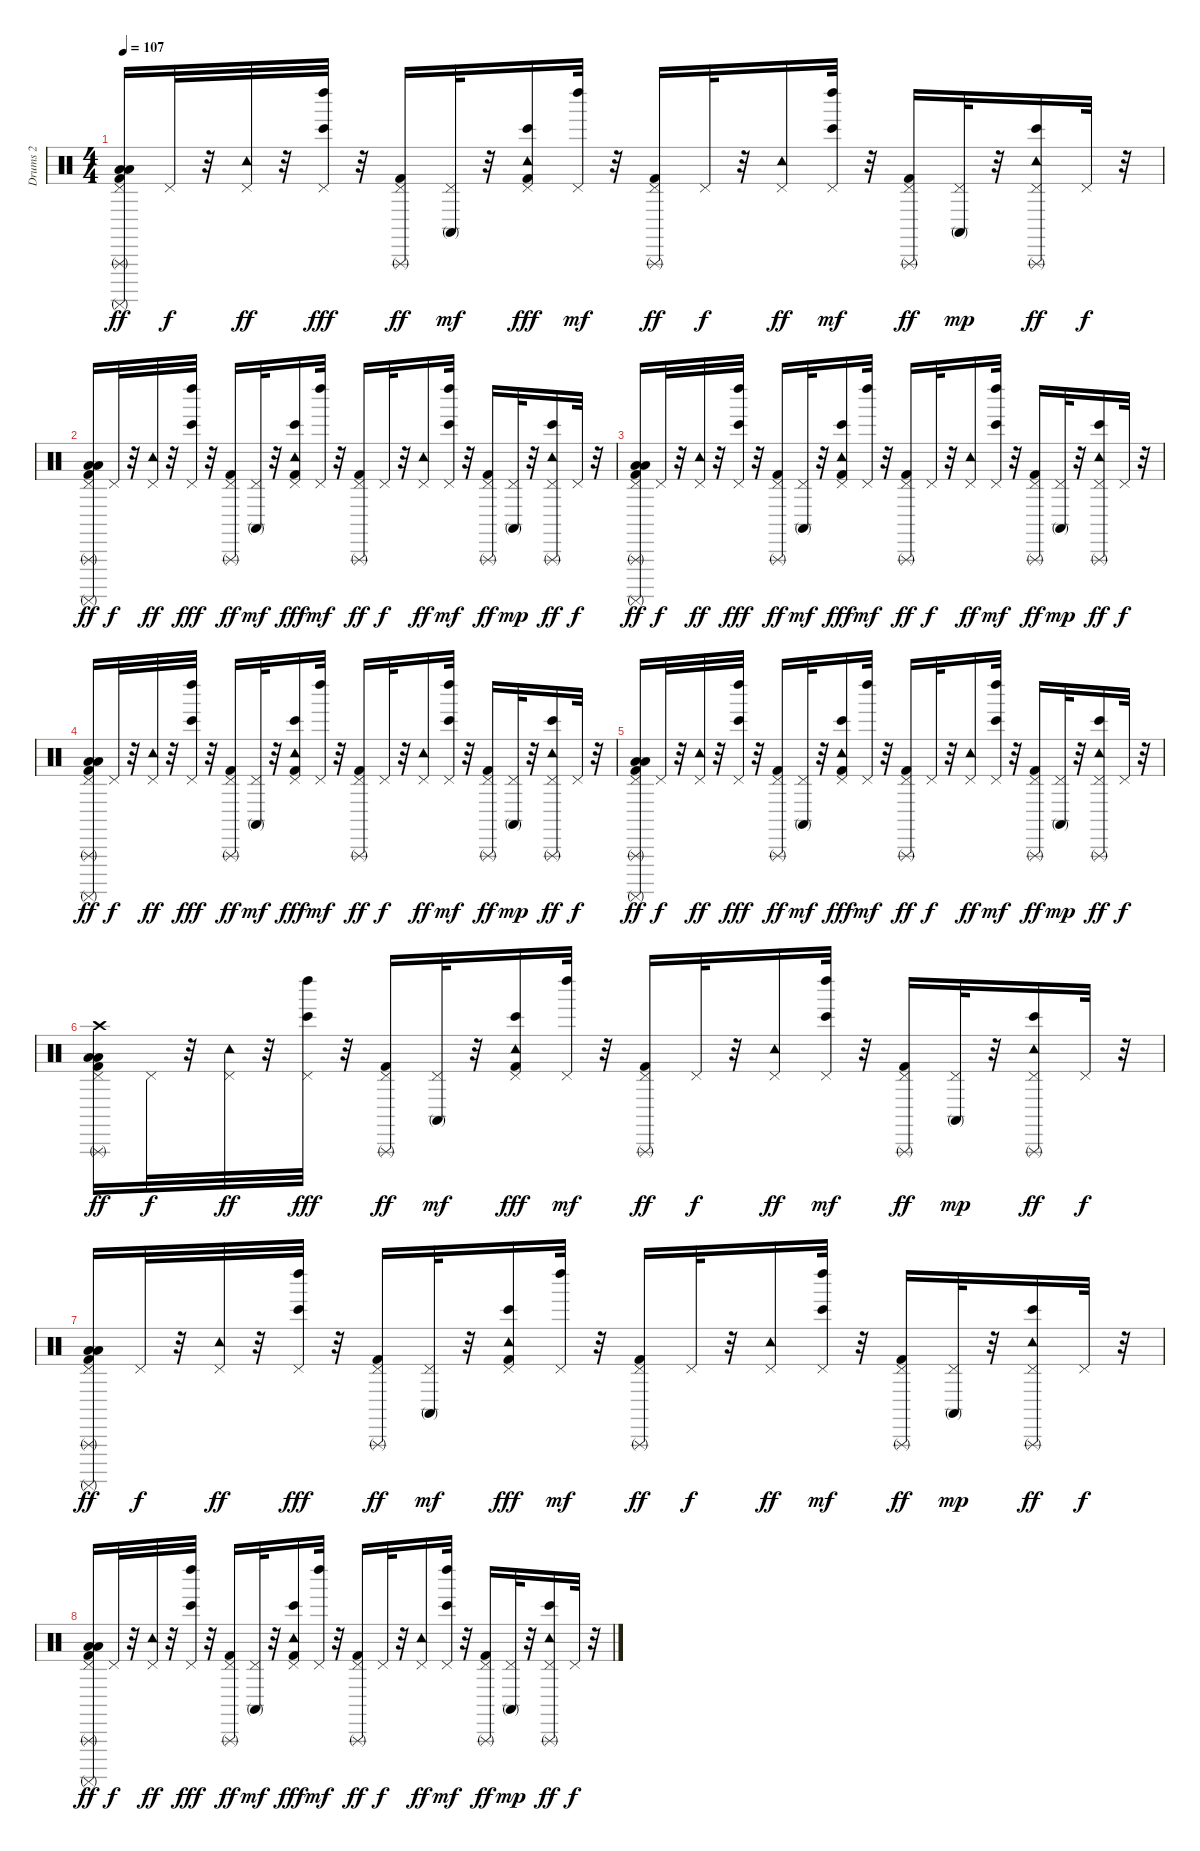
\track ("Drums 2" "Drums 2") {instrument percussion}
\staff {score}
\articulation defaults
\ts (4 4)
\tempo 107
\clef neutral
\ks c
("Kick (hit) 2" "Pedal Hi-Hat (hit)" "Low Tom (hit)" "Low Floor Tom (hit)" "Surdo (mute)" "Triangle (rnute)").16{dy ff} "Pedal Hi-Hat (hit)".32{dy f} r.32 ("Tambourine (hit)" "Pedal Hi-Hat (hit)").32{dy ff} r.32 ("Pedal Hi-Hat (hit)" "Bongo High (hit)" "Left Maraca (hit)").32{dy fff} r.32 ("Kick (hit) 2" "Pedal Hi-Hat (hit)" "Triangle (rnute)").16{dy ff} ("Pedal Hi-Hat (hit)" "Conga high (mute)").32{dy mf} r.32 ("Kick (hit) 2" "Tambourine (hit)" "Pedal Hi-Hat (hit)" "Bongo High (hit)").16{dy fff} ("Pedal Hi-Hat (hit)" "Left Maraca (hit)").32{dy mf} r.32 ("Kick (hit) 2" "Pedal Hi-Hat (hit)" "Triangle (rnute)").16{dy ff} "Pedal Hi-Hat (hit)".32{dy f} r.32 ("Tambourine (hit)" "Pedal Hi-Hat (hit)").16{dy ff} ("Pedal Hi-Hat (hit)" "Bongo High (hit)" "Left Maraca (hit)").32{dy mf} r.32 ("Kick (hit) 2" "Pedal Hi-Hat (hit)" "Triangle (rnute)").16{dy ff} ("Pedal Hi-Hat (hit)" "Conga high (mute)").32{dy mp} r.32 ("Tambourine (hit)" "Pedal Hi-Hat (hit)" "Bongo High (hit)" "Triangle (rnute)").16{dy ff} "Pedal Hi-Hat (hit)".32{dy f} r.32 |
("Kick (hit) 2" "Pedal Hi-Hat (hit)" "Low Tom (hit)" "Low Floor Tom (hit)" "Surdo (mute)" "Triangle (rnute)").16{dy ff} "Pedal Hi-Hat (hit)".32{dy f} r.32 ("Tambourine (hit)" "Pedal Hi-Hat (hit)").32{dy ff} r.32 ("Pedal Hi-Hat (hit)" "Bongo High (hit)" "Left Maraca (hit)").32{dy fff} r.32 ("Kick (hit) 2" "Pedal Hi-Hat (hit)" "Triangle (rnute)").16{dy ff} ("Pedal Hi-Hat (hit)" "Conga high (mute)").32{dy mf} r.32 ("Kick (hit) 2" "Tambourine (hit)" "Pedal Hi-Hat (hit)" "Bongo High (hit)").16{dy fff} ("Pedal Hi-Hat (hit)" "Left Maraca (hit)").32{dy mf} r.32 ("Kick (hit) 2" "Pedal Hi-Hat (hit)" "Triangle (rnute)").16{dy ff} "Pedal Hi-Hat (hit)".32{dy f} r.32 ("Tambourine (hit)" "Pedal Hi-Hat (hit)").16{dy ff} ("Pedal Hi-Hat (hit)" "Bongo High (hit)" "Left Maraca (hit)").32{dy mf} r.32 ("Kick (hit) 2" "Pedal Hi-Hat (hit)" "Triangle (rnute)").16{dy ff} ("Pedal Hi-Hat (hit)" "Conga high (mute)").32{dy mp} r.32 ("Tambourine (hit)" "Pedal Hi-Hat (hit)" "Bongo High (hit)" "Triangle (rnute)").16{dy ff} "Pedal Hi-Hat (hit)".32{dy f} r.32 |
("Kick (hit) 2" "Pedal Hi-Hat (hit)" "Low Tom (hit)" "Low Floor Tom (hit)" "Surdo (mute)" "Triangle (rnute)").16{dy ff} "Pedal Hi-Hat (hit)".32{dy f} r.32 ("Tambourine (hit)" "Pedal Hi-Hat (hit)").32{dy ff} r.32 ("Pedal Hi-Hat (hit)" "Bongo High (hit)" "Left Maraca (hit)").32{dy fff} r.32 ("Kick (hit) 2" "Pedal Hi-Hat (hit)" "Triangle (rnute)").16{dy ff} ("Pedal Hi-Hat (hit)" "Conga high (mute)").32{dy mf} r.32 ("Kick (hit) 2" "Tambourine (hit)" "Pedal Hi-Hat (hit)" "Bongo High (hit)").16{dy fff} ("Pedal Hi-Hat (hit)" "Left Maraca (hit)").32{dy mf} r.32 ("Kick (hit) 2" "Pedal Hi-Hat (hit)" "Triangle (rnute)").16{dy ff} "Pedal Hi-Hat (hit)".32{dy f} r.32 ("Tambourine (hit)" "Pedal Hi-Hat (hit)").16{dy ff} ("Pedal Hi-Hat (hit)" "Bongo High (hit)" "Left Maraca (hit)").32{dy mf} r.32 ("Kick (hit) 2" "Pedal Hi-Hat (hit)" "Triangle (rnute)").16{dy ff} ("Pedal Hi-Hat (hit)" "Conga high (mute)").32{dy mp} r.32 ("Tambourine (hit)" "Pedal Hi-Hat (hit)" "Bongo High (hit)" "Triangle (rnute)").16{dy ff} "Pedal Hi-Hat (hit)".32{dy f} r.32 |
("Kick (hit) 2" "Pedal Hi-Hat (hit)" "Low Tom (hit)" "Low Floor Tom (hit)" "Surdo (mute)" "Triangle (rnute)").16{dy ff} "Pedal Hi-Hat (hit)".32{dy f} r.32 ("Tambourine (hit)" "Pedal Hi-Hat (hit)").32{dy ff} r.32 ("Pedal Hi-Hat (hit)" "Bongo High (hit)" "Left Maraca (hit)").32{dy fff} r.32 ("Kick (hit) 2" "Pedal Hi-Hat (hit)" "Triangle (rnute)").16{dy ff} ("Pedal Hi-Hat (hit)" "Conga high (mute)").32{dy mf} r.32 ("Kick (hit) 2" "Tambourine (hit)" "Pedal Hi-Hat (hit)" "Bongo High (hit)").16{dy fff} ("Pedal Hi-Hat (hit)" "Left Maraca (hit)").32{dy mf} r.32 ("Kick (hit) 2" "Pedal Hi-Hat (hit)" "Triangle (rnute)").16{dy ff} "Pedal Hi-Hat (hit)".32{dy f} r.32 ("Tambourine (hit)" "Pedal Hi-Hat (hit)").16{dy ff} ("Pedal Hi-Hat (hit)" "Bongo High (hit)" "Left Maraca (hit)").32{dy mf} r.32 ("Kick (hit) 2" "Pedal Hi-Hat (hit)" "Triangle (rnute)").16{dy ff} ("Pedal Hi-Hat (hit)" "Conga high (mute)").32{dy mp} r.32 ("Tambourine (hit)" "Pedal Hi-Hat (hit)" "Bongo High (hit)" "Triangle (rnute)").16{dy ff} "Pedal Hi-Hat (hit)".32{dy f} r.32 |
("Kick (hit) 2" "Pedal Hi-Hat (hit)" "Low Tom (hit)" "Low Floor Tom (hit)" "Surdo (mute)" "Triangle (rnute)").16{dy ff} "Pedal Hi-Hat (hit)".32{dy f} r.32 ("Tambourine (hit)" "Pedal Hi-Hat (hit)").32{dy ff} r.32 ("Pedal Hi-Hat (hit)" "Bongo High (hit)" "Left Maraca (hit)").32{dy fff} r.32 ("Kick (hit) 2" "Pedal Hi-Hat (hit)" "Triangle (rnute)").16{dy ff} ("Pedal Hi-Hat (hit)" "Conga high (mute)").32{dy mf} r.32 ("Kick (hit) 2" "Tambourine (hit)" "Pedal Hi-Hat (hit)" "Bongo High (hit)").16{dy fff} ("Pedal Hi-Hat (hit)" "Left Maraca (hit)").32{dy mf} r.32 ("Kick (hit) 2" "Pedal Hi-Hat (hit)" "Triangle (rnute)").16{dy ff} "Pedal Hi-Hat (hit)".32{dy f} r.32 ("Tambourine (hit)" "Pedal Hi-Hat (hit)").16{dy ff} ("Pedal Hi-Hat (hit)" "Bongo High (hit)" "Left Maraca (hit)").32{dy mf} r.32 ("Kick (hit) 2" "Pedal Hi-Hat (hit)" "Triangle (rnute)").16{dy ff} ("Pedal Hi-Hat (hit)" "Conga high (mute)").32{dy mp} r.32 ("Tambourine (hit)" "Pedal Hi-Hat (hit)" "Bongo High (hit)" "Triangle (rnute)").16{dy ff} "Pedal Hi-Hat (hit)".32{dy f} r.32 |
("Kick (hit) 2" "Pedal Hi-Hat (hit)" "Low Tom (hit)" "Low Floor Tom (hit)" "Crash high (hit)" "Triangle (rnute)").16{dy ff} "Pedal Hi-Hat (hit)".32{dy f} r.32 ("Tambourine (hit)" "Pedal Hi-Hat (hit)").32{dy ff} r.32 ("Pedal Hi-Hat (hit)" "Bongo High (hit)" "Left Maraca (hit)").32{dy fff} r.32 ("Kick (hit) 2" "Pedal Hi-Hat (hit)" "Triangle (rnute)").16{dy ff} ("Pedal Hi-Hat (hit)" "Conga high (mute)").32{dy mf} r.32 ("Kick (hit) 2" "Tambourine (hit)" "Pedal Hi-Hat (hit)" "Bongo High (hit)").16{dy fff} ("Pedal Hi-Hat (hit)" "Left Maraca (hit)").32{dy mf} r.32 ("Kick (hit) 2" "Pedal Hi-Hat (hit)" "Triangle (rnute)").16{dy ff} "Pedal Hi-Hat (hit)".32{dy f} r.32 ("Tambourine (hit)" "Pedal Hi-Hat (hit)").16{dy ff} ("Pedal Hi-Hat (hit)" "Bongo High (hit)" "Left Maraca (hit)").32{dy mf} r.32 ("Kick (hit) 2" "Pedal Hi-Hat (hit)" "Triangle (rnute)").16{dy ff} ("Pedal Hi-Hat (hit)" "Conga high (mute)").32{dy mp} r.32 ("Tambourine (hit)" "Pedal Hi-Hat (hit)" "Bongo High (hit)" "Triangle (rnute)").16{dy ff} "Pedal Hi-Hat (hit)".32{dy f} r.32 |
("Kick (hit) 2" "Pedal Hi-Hat (hit)" "Low Tom (hit)" "Low Floor Tom (hit)" "Surdo (mute)" "Triangle (rnute)").16{dy ff} "Pedal Hi-Hat (hit)".32{dy f} r.32 ("Tambourine (hit)" "Pedal Hi-Hat (hit)").32{dy ff} r.32 ("Pedal Hi-Hat (hit)" "Bongo High (hit)" "Left Maraca (hit)").32{dy fff} r.32 ("Kick (hit) 2" "Pedal Hi-Hat (hit)" "Triangle (rnute)").16{dy ff} ("Pedal Hi-Hat (hit)" "Conga high (mute)").32{dy mf} r.32 ("Kick (hit) 2" "Tambourine (hit)" "Pedal Hi-Hat (hit)" "Bongo High (hit)").16{dy fff} ("Pedal Hi-Hat (hit)" "Left Maraca (hit)").32{dy mf} r.32 ("Kick (hit) 2" "Pedal Hi-Hat (hit)" "Triangle (rnute)").16{dy ff} "Pedal Hi-Hat (hit)".32{dy f} r.32 ("Tambourine (hit)" "Pedal Hi-Hat (hit)").16{dy ff} ("Pedal Hi-Hat (hit)" "Bongo High (hit)" "Left Maraca (hit)").32{dy mf} r.32 ("Kick (hit) 2" "Pedal Hi-Hat (hit)" "Triangle (rnute)").16{dy ff} ("Pedal Hi-Hat (hit)" "Conga high (mute)").32{dy mp} r.32 ("Tambourine (hit)" "Pedal Hi-Hat (hit)" "Bongo High (hit)" "Triangle (rnute)").16{dy ff} "Pedal Hi-Hat (hit)".32{dy f} r.32 |
("Kick (hit) 2" "Pedal Hi-Hat (hit)" "Low Tom (hit)" "Low Floor Tom (hit)" "Surdo (mute)" "Triangle (rnute)").16{dy ff} "Pedal Hi-Hat (hit)".32{dy f} r.32 ("Tambourine (hit)" "Pedal Hi-Hat (hit)").32{dy ff} r.32 ("Pedal Hi-Hat (hit)" "Bongo High (hit)" "Left Maraca (hit)").32{dy fff} r.32 ("Kick (hit) 2" "Pedal Hi-Hat (hit)" "Triangle (rnute)").16{dy ff} ("Pedal Hi-Hat (hit)" "Conga high (mute)").32{dy mf} r.32 ("Kick (hit) 2" "Tambourine (hit)" "Pedal Hi-Hat (hit)" "Bongo High (hit)").16{dy fff} ("Pedal Hi-Hat (hit)" "Left Maraca (hit)").32{dy mf} r.32 ("Kick (hit) 2" "Pedal Hi-Hat (hit)" "Triangle (rnute)").16{dy ff} "Pedal Hi-Hat (hit)".32{dy f} r.32 ("Tambourine (hit)" "Pedal Hi-Hat (hit)").16{dy ff} ("Pedal Hi-Hat (hit)" "Bongo High (hit)" "Left Maraca (hit)").32{dy mf} r.32 ("Kick (hit) 2" "Pedal Hi-Hat (hit)" "Triangle (rnute)").16{dy ff} ("Pedal Hi-Hat (hit)" "Conga high (mute)").32{dy mp} r.32 ("Tambourine (hit)" "Pedal Hi-Hat (hit)" "Bongo High (hit)" "Triangle (rnute)").16{dy ff} "Pedal Hi-Hat (hit)".32{dy f} r.32
